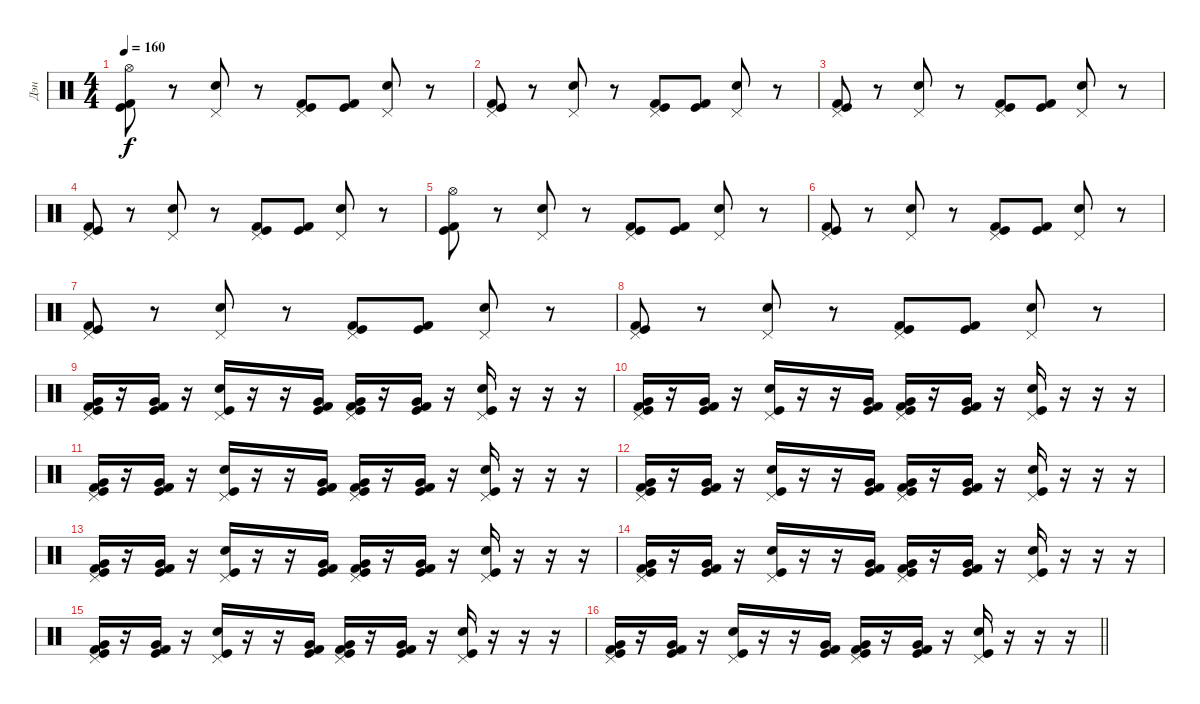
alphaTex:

\track ("Дэн" "Дэн") {instrument percussion}
\staff {score}
\articulation defaults
\ts (4 4)
\tempo 160
\clef neutral
\ks c
("Hi-Hat (open)" "Kick (hit)" "Kick (hit) 2").8{dy f} r.8 ("Pedal Hi-Hat (hit)" "Electric Snare (hit)").8 r.8 ("Pedal Hi-Hat (hit)" "Kick (hit)" "Kick (hit) 2").8 ("Kick (hit)" "Kick (hit) 2").8 ("Pedal Hi-Hat (hit)" "Electric Snare (hit)").8 r.8 |
("Pedal Hi-Hat (hit)" "Kick (hit)" "Kick (hit) 2").8 r.8 ("Pedal Hi-Hat (hit)" "Electric Snare (hit)").8 r.8 ("Pedal Hi-Hat (hit)" "Kick (hit)" "Kick (hit) 2").8 ("Kick (hit)" "Kick (hit) 2").8 ("Pedal Hi-Hat (hit)" "Electric Snare (hit)").8 r.8 |
("Pedal Hi-Hat (hit)" "Kick (hit)" "Kick (hit) 2").8 r.8 ("Pedal Hi-Hat (hit)" "Electric Snare (hit)").8 r.8 ("Pedal Hi-Hat (hit)" "Kick (hit)" "Kick (hit) 2").8 ("Kick (hit)" "Kick (hit) 2").8 ("Pedal Hi-Hat (hit)" "Electric Snare (hit)").8 r.8 |
("Pedal Hi-Hat (hit)" "Kick (hit)" "Kick (hit) 2").8 r.8 ("Pedal Hi-Hat (hit)" "Electric Snare (hit)").8 r.8 ("Pedal Hi-Hat (hit)" "Kick (hit)" "Kick (hit) 2").8 ("Kick (hit)" "Kick (hit) 2").8 ("Pedal Hi-Hat (hit)" "Electric Snare (hit)").8 r.8 |
("Hi-Hat (open)" "Kick (hit)" "Kick (hit) 2").8 r.8 ("Pedal Hi-Hat (hit)" "Electric Snare (hit)").8 r.8 ("Pedal Hi-Hat (hit)" "Kick (hit)" "Kick (hit) 2").8 ("Kick (hit)" "Kick (hit) 2").8 ("Pedal Hi-Hat (hit)" "Electric Snare (hit)").8 r.8 |
("Pedal Hi-Hat (hit)" "Kick (hit)" "Kick (hit) 2").8 r.8 ("Pedal Hi-Hat (hit)" "Electric Snare (hit)").8 r.8 ("Pedal Hi-Hat (hit)" "Kick (hit)" "Kick (hit) 2").8 ("Kick (hit)" "Kick (hit) 2").8 ("Pedal Hi-Hat (hit)" "Electric Snare (hit)").8 r.8 |
("Pedal Hi-Hat (hit)" "Kick (hit)" "Kick (hit) 2").8 r.8 ("Pedal Hi-Hat (hit)" "Electric Snare (hit)").8 r.8 ("Pedal Hi-Hat (hit)" "Kick (hit)" "Kick (hit) 2").8 ("Kick (hit)" "Kick (hit) 2").8 ("Pedal Hi-Hat (hit)" "Electric Snare (hit)").8 r.8 |
("Pedal Hi-Hat (hit)" "Kick (hit)" "Kick (hit) 2").8 r.8 ("Pedal Hi-Hat (hit)" "Electric Snare (hit)").8 r.8 ("Pedal Hi-Hat (hit)" "Kick (hit)" "Kick (hit) 2").8 ("Kick (hit)" "Kick (hit) 2").8 ("Pedal Hi-Hat (hit)" "Electric Snare (hit)").8 r.8 |
("Pedal Hi-Hat (hit)" "Very Low Tom (hit)" "Kick (hit) 2" "Kick (hit)").16 r.16 ("Very Low Tom (hit)" "Kick (hit) 2" "Kick (hit)").16 r.16 ("Pedal Hi-Hat (hit)" "Electric Snare (hit)" "Kick (hit)").16 r.16 r.16 ("Very Low Tom (hit)" "Kick (hit) 2" "Kick (hit)").16 ("Pedal Hi-Hat (hit)" "Very Low Tom (hit)" "Kick (hit) 2" "Kick (hit)").16 r.16 ("Very Low Tom (hit)" "Kick (hit) 2" "Kick (hit)").16 r.16 ("Pedal Hi-Hat (hit)" "Electric Snare (hit)" "Kick (hit)").16 r.16 r.16 r.16 |
("Pedal Hi-Hat (hit)" "Very Low Tom (hit)" "Kick (hit) 2" "Kick (hit)").16 r.16 ("Very Low Tom (hit)" "Kick (hit) 2" "Kick (hit)").16 r.16 ("Pedal Hi-Hat (hit)" "Electric Snare (hit)" "Kick (hit)").16 r.16 r.16 ("Very Low Tom (hit)" "Kick (hit) 2" "Kick (hit)").16 ("Pedal Hi-Hat (hit)" "Very Low Tom (hit)" "Kick (hit) 2" "Kick (hit)").16 r.16 ("Very Low Tom (hit)" "Kick (hit) 2" "Kick (hit)").16 r.16 ("Pedal Hi-Hat (hit)" "Electric Snare (hit)" "Kick (hit)").16 r.16 r.16 r.16 |
("Pedal Hi-Hat (hit)" "Very Low Tom (hit)" "Kick (hit) 2" "Kick (hit)").16 r.16 ("Very Low Tom (hit)" "Kick (hit) 2" "Kick (hit)").16 r.16 ("Pedal Hi-Hat (hit)" "Electric Snare (hit)" "Kick (hit)").16 r.16 r.16 ("Very Low Tom (hit)" "Kick (hit) 2" "Kick (hit)").16 ("Pedal Hi-Hat (hit)" "Very Low Tom (hit)" "Kick (hit) 2" "Kick (hit)").16 r.16 ("Very Low Tom (hit)" "Kick (hit) 2" "Kick (hit)").16 r.16 ("Pedal Hi-Hat (hit)" "Electric Snare (hit)" "Kick (hit)").16 r.16 r.16 r.16 |
("Pedal Hi-Hat (hit)" "Very Low Tom (hit)" "Kick (hit) 2" "Kick (hit)").16 r.16 ("Very Low Tom (hit)" "Kick (hit) 2" "Kick (hit)").16 r.16 ("Pedal Hi-Hat (hit)" "Electric Snare (hit)" "Kick (hit)").16 r.16 r.16 ("Very Low Tom (hit)" "Kick (hit) 2" "Kick (hit)").16 ("Pedal Hi-Hat (hit)" "Very Low Tom (hit)" "Kick (hit) 2" "Kick (hit)").16 r.16 ("Very Low Tom (hit)" "Kick (hit) 2" "Kick (hit)").16 r.16 ("Pedal Hi-Hat (hit)" "Electric Snare (hit)" "Kick (hit)").16 r.16 r.16 r.16 |
("Pedal Hi-Hat (hit)" "Very Low Tom (hit)" "Kick (hit) 2" "Kick (hit)").16 r.16 ("Very Low Tom (hit)" "Kick (hit) 2" "Kick (hit)").16 r.16 ("Pedal Hi-Hat (hit)" "Electric Snare (hit)" "Kick (hit)").16 r.16 r.16 ("Very Low Tom (hit)" "Kick (hit) 2" "Kick (hit)").16 ("Pedal Hi-Hat (hit)" "Very Low Tom (hit)" "Kick (hit) 2" "Kick (hit)").16 r.16 ("Very Low Tom (hit)" "Kick (hit) 2" "Kick (hit)").16 r.16 ("Pedal Hi-Hat (hit)" "Electric Snare (hit)" "Kick (hit)").16 r.16 r.16 r.16 |
("Pedal Hi-Hat (hit)" "Very Low Tom (hit)" "Kick (hit) 2" "Kick (hit)").16 r.16 ("Very Low Tom (hit)" "Kick (hit) 2" "Kick (hit)").16 r.16 ("Pedal Hi-Hat (hit)" "Electric Snare (hit)" "Kick (hit)").16 r.16 r.16 ("Very Low Tom (hit)" "Kick (hit) 2" "Kick (hit)").16 ("Pedal Hi-Hat (hit)" "Very Low Tom (hit)" "Kick (hit) 2" "Kick (hit)").16 r.16 ("Very Low Tom (hit)" "Kick (hit) 2" "Kick (hit)").16 r.16 ("Pedal Hi-Hat (hit)" "Electric Snare (hit)" "Kick (hit)").16 r.16 r.16 r.16 |
("Pedal Hi-Hat (hit)" "Very Low Tom (hit)" "Kick (hit) 2" "Kick (hit)").16 r.16 ("Very Low Tom (hit)" "Kick (hit) 2" "Kick (hit)").16 r.16 ("Pedal Hi-Hat (hit)" "Electric Snare (hit)" "Kick (hit)").16 r.16 r.16 ("Very Low Tom (hit)" "Kick (hit) 2" "Kick (hit)").16 ("Pedal Hi-Hat (hit)" "Very Low Tom (hit)" "Kick (hit) 2" "Kick (hit)").16 r.16 ("Very Low Tom (hit)" "Kick (hit) 2" "Kick (hit)").16 r.16 ("Pedal Hi-Hat (hit)" "Electric Snare (hit)" "Kick (hit)").16 r.16 r.16 r.16 |
\barLineRight lightlight
("Pedal Hi-Hat (hit)" "Very Low Tom (hit)" "Kick (hit) 2" "Kick (hit)").16 r.16 ("Very Low Tom (hit)" "Kick (hit) 2" "Kick (hit)").16 r.16 ("Pedal Hi-Hat (hit)" "Electric Snare (hit)" "Kick (hit)").16 r.16 r.16 ("Very Low Tom (hit)" "Kick (hit) 2" "Kick (hit)").16 ("Pedal Hi-Hat (hit)" "Very Low Tom (hit)" "Kick (hit) 2" "Kick (hit)").16 r.16 ("Very Low Tom (hit)" "Kick (hit) 2" "Kick (hit)").16 r.16 ("Pedal Hi-Hat (hit)" "Electric Snare (hit)" "Kick (hit)").16 r.16 r.16 r.16
